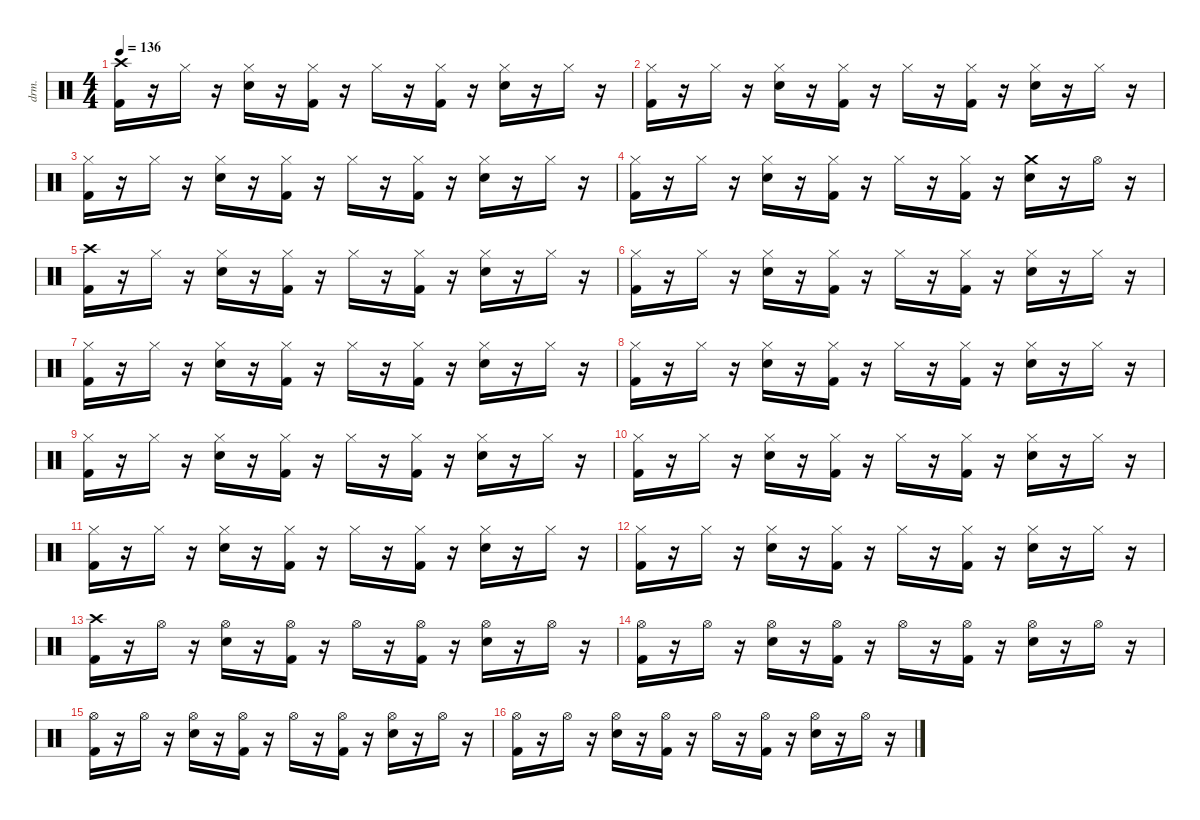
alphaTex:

\defaultSystemsLayout 4
\hideDynamics
\bracketExtendMode nobrackets
\otherSystemsTrackNameOrientation horizontal
\track ("Drums" "drm.") {instrument percussion}
\staff {score}
\articulation defaults
\ts (4 4)
\tempo 136
\clef neutral
\ks c
("Kick (hit) 2" "Crash high (hit)").16{dy f} r.16 "Hi-Hat (closed)".16 r.16 ("Snare (hit) 2" "Hi-Hat (closed)").16 r.16 ("Kick (hit) 2" "Hi-Hat (closed)").16 r.16 "Hi-Hat (closed)".16 r.16 ("Kick (hit) 2" "Hi-Hat (closed)").16 r.16 ("Snare (hit) 2" "Hi-Hat (closed)").16 r.16 "Hi-Hat (closed)".16 r.16 |
("Kick (hit) 2" "Hi-Hat (closed)").16 r.16 "Hi-Hat (closed)".16 r.16 ("Snare (hit) 2" "Hi-Hat (closed)").16 r.16 ("Kick (hit) 2" "Hi-Hat (closed)").16 r.16 "Hi-Hat (closed)".16 r.16 ("Kick (hit) 2" "Hi-Hat (closed)").16 r.16 ("Snare (hit) 2" "Hi-Hat (closed)").16 r.16 "Hi-Hat (closed)".16 r.16 |
("Kick (hit) 2" "Hi-Hat (closed)").16 r.16 "Hi-Hat (closed)".16 r.16 ("Snare (hit) 2" "Hi-Hat (closed)").16 r.16 ("Kick (hit) 2" "Hi-Hat (closed)").16 r.16 "Hi-Hat (closed)".16 r.16 ("Kick (hit) 2" "Hi-Hat (closed)").16 r.16 ("Snare (hit) 2" "Hi-Hat (closed)").16 r.16 "Hi-Hat (closed)".16 r.16 |
("Kick (hit) 2" "Hi-Hat (closed)").16 r.16 "Hi-Hat (closed)".16 r.16 ("Snare (hit) 2" "Hi-Hat (closed)").16 r.16 ("Kick (hit) 2" "Hi-Hat (closed)").16 r.16 "Hi-Hat (closed)".16 r.16 ("Kick (hit) 2" "Hi-Hat (closed)").16 r.16 ("Snare (hit) 2" "Crash medium (hit)").16 r.16 "Hi-Hat (open)".16 r.16 |
("Kick (hit) 2" "Crash high (hit)").16 r.16 "Hi-Hat (closed)".16 r.16 ("Snare (hit) 2" "Hi-Hat (closed)").16 r.16 ("Kick (hit) 2" "Hi-Hat (closed)").16 r.16 "Hi-Hat (closed)".16 r.16 ("Kick (hit) 2" "Hi-Hat (closed)").16 r.16 ("Snare (hit) 2" "Hi-Hat (closed)").16 r.16 "Hi-Hat (closed)".16 r.16 |
("Kick (hit) 2" "Hi-Hat (closed)").16 r.16 "Hi-Hat (closed)".16 r.16 ("Snare (hit) 2" "Hi-Hat (closed)").16 r.16 ("Kick (hit) 2" "Hi-Hat (closed)").16 r.16 "Hi-Hat (closed)".16 r.16 ("Kick (hit) 2" "Hi-Hat (closed)").16 r.16 ("Snare (hit) 2" "Hi-Hat (closed)").16 r.16 "Hi-Hat (closed)".16 r.16 |
("Kick (hit) 2" "Hi-Hat (closed)").16 r.16 "Hi-Hat (closed)".16 r.16 ("Snare (hit) 2" "Hi-Hat (closed)").16 r.16 ("Kick (hit) 2" "Hi-Hat (closed)").16 r.16 "Hi-Hat (closed)".16 r.16 ("Kick (hit) 2" "Hi-Hat (closed)").16 r.16 ("Snare (hit) 2" "Hi-Hat (closed)").16 r.16 "Hi-Hat (closed)".16 r.16 |
("Kick (hit) 2" "Hi-Hat (closed)").16 r.16 "Hi-Hat (closed)".16 r.16 ("Snare (hit) 2" "Hi-Hat (closed)").16 r.16 ("Kick (hit) 2" "Hi-Hat (closed)").16 r.16 "Hi-Hat (closed)".16 r.16 ("Kick (hit) 2" "Hi-Hat (closed)").16 r.16 ("Snare (hit) 2" "Hi-Hat (closed)").16 r.16 "Hi-Hat (closed)".16 r.16 |
("Kick (hit) 2" "Hi-Hat (closed)").16 r.16 "Hi-Hat (closed)".16 r.16 ("Snare (hit) 2" "Hi-Hat (closed)").16 r.16 ("Kick (hit) 2" "Hi-Hat (closed)").16 r.16 "Hi-Hat (closed)".16 r.16 ("Kick (hit) 2" "Hi-Hat (closed)").16 r.16 ("Snare (hit) 2" "Hi-Hat (closed)").16 r.16 "Hi-Hat (closed)".16 r.16 |
("Kick (hit) 2" "Hi-Hat (closed)").16 r.16 "Hi-Hat (closed)".16 r.16 ("Snare (hit) 2" "Hi-Hat (closed)").16 r.16 ("Kick (hit) 2" "Hi-Hat (closed)").16 r.16 "Hi-Hat (closed)".16 r.16 ("Kick (hit) 2" "Hi-Hat (closed)").16 r.16 ("Snare (hit) 2" "Hi-Hat (closed)").16 r.16 "Hi-Hat (closed)".16 r.16 |
("Kick (hit) 2" "Hi-Hat (closed)").16 r.16 "Hi-Hat (closed)".16 r.16 ("Snare (hit) 2" "Hi-Hat (closed)").16 r.16 ("Kick (hit) 2" "Hi-Hat (closed)").16 r.16 "Hi-Hat (closed)".16 r.16 ("Kick (hit) 2" "Hi-Hat (closed)").16 r.16 ("Snare (hit) 2" "Hi-Hat (closed)").16 r.16 "Hi-Hat (closed)".16 r.16 |
("Kick (hit) 2" "Hi-Hat (closed)").16 r.16 "Hi-Hat (closed)".16 r.16 ("Snare (hit) 2" "Hi-Hat (closed)").16 r.16 ("Kick (hit) 2" "Hi-Hat (closed)").16 r.16 "Hi-Hat (closed)".16 r.16 ("Kick (hit) 2" "Hi-Hat (closed)").16 r.16 ("Snare (hit) 2" "Hi-Hat (closed)").16 r.16 "Hi-Hat (closed)".16 r.16 |
("Kick (hit) 2" "Crash high (hit)").16 r.16 "Hi-Hat (open)".16 r.16 ("Snare (hit) 2" "Hi-Hat (open)").16 r.16 ("Kick (hit) 2" "Hi-Hat (open)").16 r.16 "Hi-Hat (open)".16 r.16 ("Kick (hit) 2" "Hi-Hat (open)").16 r.16 ("Snare (hit) 2" "Hi-Hat (open)").16 r.16 "Hi-Hat (open)".16 r.16 |
("Kick (hit) 2" "Hi-Hat (open)").16 r.16 "Hi-Hat (open)".16 r.16 ("Snare (hit) 2" "Hi-Hat (open)").16 r.16 ("Kick (hit) 2" "Hi-Hat (open)").16 r.16 "Hi-Hat (open)".16 r.16 ("Kick (hit) 2" "Hi-Hat (open)").16 r.16 ("Snare (hit) 2" "Hi-Hat (open)").16 r.16 "Hi-Hat (open)".16 r.16 |
("Kick (hit) 2" "Hi-Hat (open)").16 r.16 "Hi-Hat (open)".16 r.16 ("Snare (hit) 2" "Hi-Hat (open)").16 r.16 ("Kick (hit) 2" "Hi-Hat (open)").16 r.16 "Hi-Hat (open)".16 r.16 ("Kick (hit) 2" "Hi-Hat (open)").16 r.16 ("Snare (hit) 2" "Hi-Hat (open)").16 r.16 "Hi-Hat (open)".16 r.16 |
("Kick (hit) 2" "Hi-Hat (open)").16 r.16 "Hi-Hat (open)".16 r.16 ("Snare (hit) 2" "Hi-Hat (open)").16 r.16 ("Kick (hit) 2" "Hi-Hat (open)").16 r.16 "Hi-Hat (open)".16 r.16 ("Kick (hit) 2" "Hi-Hat (open)").16 r.16 ("Snare (hit) 2" "Hi-Hat (open)").16 r.16 "Hi-Hat (open)".16 r.16
